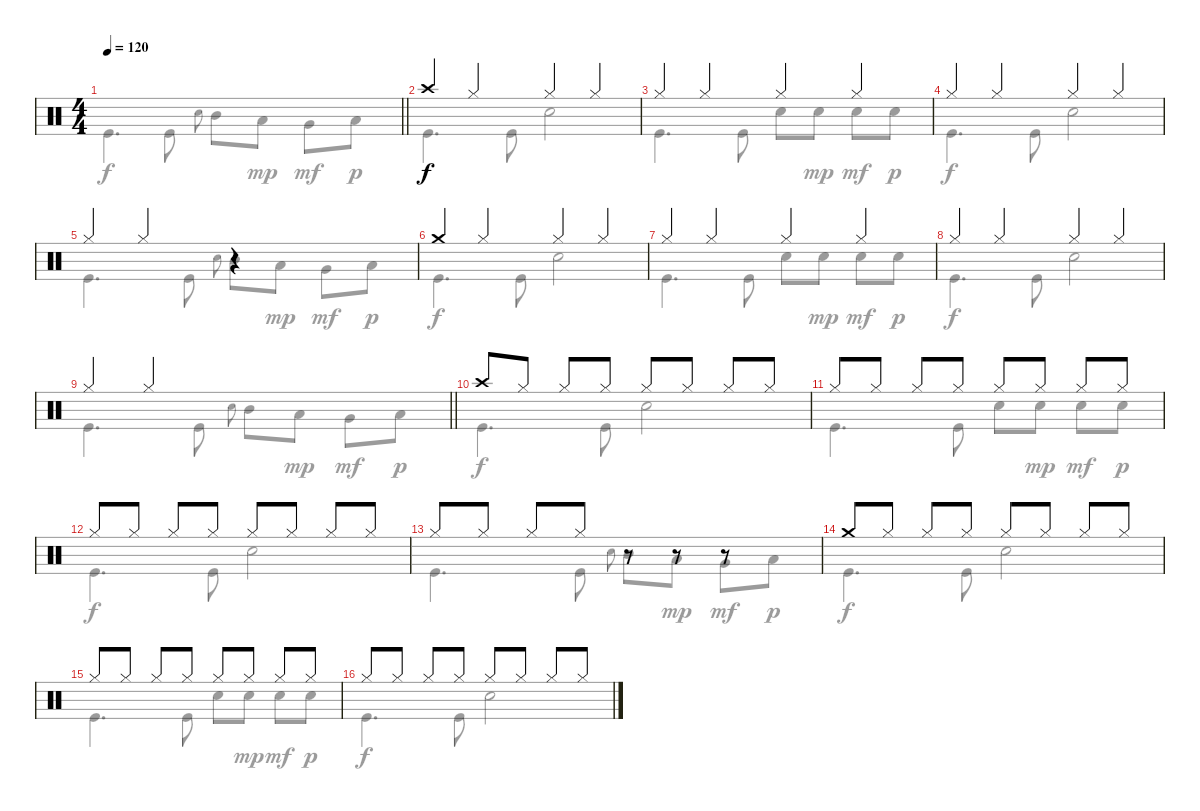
\track "" {instrument percussion}
\staff {score}
\articulation defaults
\voice
\ts (4 4)
\tempo 120
\clef neutral
\barLineRight lightlight
\ks c
|
"Crash high (hit)".4 "Hi-Hat (closed)".4 "Hi-Hat (closed)".4 "Hi-Hat (closed)".4 |
"Hi-Hat (closed)".4 "Hi-Hat (closed)".4 "Hi-Hat (closed)".4 "Hi-Hat (closed)".4 |
"Hi-Hat (closed)".4 "Hi-Hat (closed)".4 "Hi-Hat (closed)".4 "Hi-Hat (closed)".4 |
"Hi-Hat (closed)".4 "Hi-Hat (closed)".4 r.4 |
"Crash medium (hit)".4 "Hi-Hat (closed)".4 "Hi-Hat (closed)".4 "Hi-Hat (closed)".4 |
"Hi-Hat (closed)".4 "Hi-Hat (closed)".4 "Hi-Hat (closed)".4 "Hi-Hat (closed)".4 |
"Hi-Hat (closed)".4 "Hi-Hat (closed)".4 "Hi-Hat (closed)".4 "Hi-Hat (closed)".4 |
\barLineRight lightlight "Hi-Hat (closed)".4 "Hi-Hat (closed)".4
|
"Crash high (hit)".8 "Hi-Hat (closed)".8 "Hi-Hat (closed)".8 "Hi-Hat (closed)".8 "Hi-Hat (closed)".8 "Hi-Hat (closed)".8 "Hi-Hat (closed)".8 "Hi-Hat (closed)".8 |
"Hi-Hat (closed)".8 "Hi-Hat (closed)".8 "Hi-Hat (closed)".8 "Hi-Hat (closed)".8 "Hi-Hat (closed)".8 "Hi-Hat (closed)".8 "Hi-Hat (closed)".8 "Hi-Hat (closed)".8 |
"Hi-Hat (closed)".8 "Hi-Hat (closed)".8 "Hi-Hat (closed)".8 "Hi-Hat (closed)".8 "Hi-Hat (closed)".8 "Hi-Hat (closed)".8 "Hi-Hat (closed)".8 "Hi-Hat (closed)".8 |
"Hi-Hat (closed)".8 "Hi-Hat (closed)".8 "Hi-Hat (closed)".8 "Hi-Hat (closed)".8 r.8 r.8 r.8 |
"Crash medium (hit)".8 "Hi-Hat (closed)".8 "Hi-Hat (closed)".8 "Hi-Hat (closed)".8 "Hi-Hat (closed)".8 "Hi-Hat (closed)".8 "Hi-Hat (closed)".8 "Hi-Hat (closed)".8 |
"Hi-Hat (closed)".8 "Hi-Hat (closed)".8 "Hi-Hat (closed)".8 "Hi-Hat (closed)".8 "Hi-Hat (closed)".8 "Hi-Hat (closed)".8 "Hi-Hat (closed)".8 "Hi-Hat (closed)".8 |
"Hi-Hat (closed)".8 "Hi-Hat (closed)".8 "Hi-Hat (closed)".8 "Hi-Hat (closed)".8 "Hi-Hat (closed)".8 "Hi-Hat (closed)".8 "Hi-Hat (closed)".8 "Hi-Hat (closed)".8
\voice
\clef neutral
\ottava regular
\simile none
\barLineRight lightlight
\ks c "Kick (hit)".4{d dy f} "Kick (hit)".8 "Snare (hit) 2".8{gr onbeat} "Mid Tom (hit)".8 "Low Tom (hit)".8{dy mp} "Very Low Tom (hit)".8{dy mf} "Low Floor Tom (hit)".8{dy p}
|
"Kick (hit)".4{d dy f} "Kick (hit)".8 "Snare (hit) 2".2 |
"Kick (hit)".4{d} "Kick (hit)".8 "Snare (hit) 2".8 "Snare (hit) 2".8{dy mp} "Snare (hit) 2".8{dy mf} "Snare (hit) 2".8{dy p} |
"Kick (hit)".4{d dy f} "Kick (hit)".8 "Snare (hit) 2".2 |
"Kick (hit)".4{d} "Kick (hit)".8 "Snare (hit) 2".8{gr onbeat} "Mid Tom (hit)".8 "Low Tom (hit)".8{dy mp} "Very Low Tom (hit)".8{dy mf} "Low Floor Tom (hit)".8{dy p} |
"Kick (hit)".4{d dy f} "Kick (hit)".8 "Snare (hit) 2".2 |
"Kick (hit)".4{d} "Kick (hit)".8 "Snare (hit) 2".8 "Snare (hit) 2".8{dy mp} "Snare (hit) 2".8{dy mf} "Snare (hit) 2".8{dy p} |
"Kick (hit)".4{d dy f} "Kick (hit)".8 "Snare (hit) 2".2 |
\barLineRight lightlight "Kick (hit)".4{d} "Kick (hit)".8 "Snare (hit) 2".8{gr onbeat} "Mid Tom (hit)".8 "Low Tom (hit)".8{dy mp} "Very Low Tom (hit)".8{dy mf} "Low Floor Tom (hit)".8{dy p}
|
"Kick (hit)".4{d dy f} "Kick (hit)".8 "Snare (hit) 2".2 |
"Kick (hit)".4{d} "Kick (hit)".8 "Snare (hit) 2".8 "Snare (hit) 2".8{dy mp} "Snare (hit) 2".8{dy mf} "Snare (hit) 2".8{dy p} |
"Kick (hit)".4{d dy f} "Kick (hit)".8 "Snare (hit) 2".2 |
"Kick (hit)".4{d} "Kick (hit)".8 "Snare (hit) 2".8{gr onbeat} "Mid Tom (hit)".8 "Low Tom (hit)".8{dy mp} "Very Low Tom (hit)".8{dy mf} "Low Floor Tom (hit)".8{dy p} |
"Kick (hit)".4{d dy f} "Kick (hit)".8 "Snare (hit) 2".2 |
"Kick (hit)".4{d} "Kick (hit)".8 "Snare (hit) 2".8 "Snare (hit) 2".8{dy mp} "Snare (hit) 2".8{dy mf} "Snare (hit) 2".8{dy p} |
"Kick (hit)".4{d dy f} "Kick (hit)".8 "Snare (hit) 2".2
